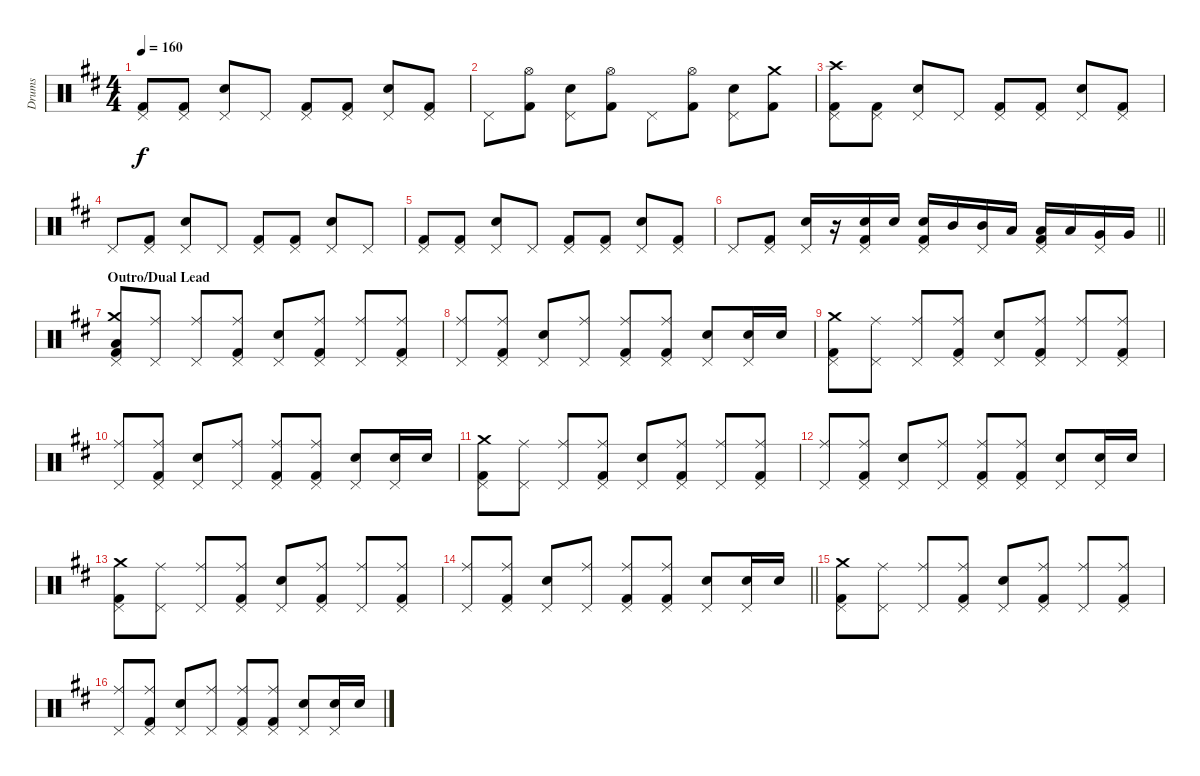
\track ("Drums" "Drums") {instrument percussion}
\staff {score}
\articulation defaults
\ts (4 4)
\tempo 160
\clef neutral
\ks d
("Pedal Hi-Hat (hit)" "Kick (hit) 2").8{dy f} ("Pedal Hi-Hat (hit)" "Kick (hit) 2").8 ("Pedal Hi-Hat (hit)" "Electric Snare (hit)").8 "Pedal Hi-Hat (hit)".8 ("Pedal Hi-Hat (hit)" "Kick (hit) 2").8 ("Pedal Hi-Hat (hit)" "Kick (hit) 2").8 ("Pedal Hi-Hat (hit)" "Electric Snare (hit)").8 ("Pedal Hi-Hat (hit)" "Kick (hit) 2").8 |
"Pedal Hi-Hat (hit)".8 ("Hi-Hat (open)" "Kick (hit) 2").8 ("Pedal Hi-Hat (hit)" "Electric Snare (hit)").8 ("Hi-Hat (open)" "Kick (hit) 2").8 "Pedal Hi-Hat (hit)".8 ("Hi-Hat (open)" "Kick (hit) 2").8 ("Pedal Hi-Hat (hit)" "Electric Snare (hit)").8 ("Crash medium (hit)" "Kick (hit) 2").8 |
("Crash high (hit)" "Pedal Hi-Hat (hit)" "Kick (hit) 2").8 ("Pedal Hi-Hat (hit)" "Kick (hit) 2").8 ("Pedal Hi-Hat (hit)" "Electric Snare (hit)").8 "Pedal Hi-Hat (hit)".8 ("Pedal Hi-Hat (hit)" "Kick (hit) 2").8 ("Pedal Hi-Hat (hit)" "Kick (hit) 2").8 ("Pedal Hi-Hat (hit)" "Electric Snare (hit)").8 ("Pedal Hi-Hat (hit)" "Kick (hit) 2").8 |
"Pedal Hi-Hat (hit)".8 ("Pedal Hi-Hat (hit)" "Kick (hit) 2").8 ("Pedal Hi-Hat (hit)" "Electric Snare (hit)").8 "Pedal Hi-Hat (hit)".8 ("Pedal Hi-Hat (hit)" "Kick (hit) 2").8 ("Pedal Hi-Hat (hit)" "Kick (hit) 2").8 ("Pedal Hi-Hat (hit)" "Electric Snare (hit)").8 "Pedal Hi-Hat (hit)".8 |
("Pedal Hi-Hat (hit)" "Kick (hit) 2").8 ("Pedal Hi-Hat (hit)" "Kick (hit) 2").8 ("Pedal Hi-Hat (hit)" "Electric Snare (hit)").8 "Pedal Hi-Hat (hit)".8 ("Pedal Hi-Hat (hit)" "Kick (hit) 2").8 ("Pedal Hi-Hat (hit)" "Kick (hit) 2").8 ("Pedal Hi-Hat (hit)" "Electric Snare (hit)").8 ("Pedal Hi-Hat (hit)" "Kick (hit) 2").8 |
\barLineRight lightlight "Pedal Hi-Hat (hit)".8
("Pedal Hi-Hat (hit)" "Kick (hit) 2").8 ("Pedal Hi-Hat (hit)" "Electric Snare (hit)").16 r.16 ("Pedal Hi-Hat (hit)" "Electric Snare (hit)" "Kick (hit) 2").16 "Electric Snare (hit)".16 ("Pedal Hi-Hat (hit)" "Electric Snare (hit)" "Kick (hit) 2").16 "Mid Tom (hit)".16 ("Pedal Hi-Hat (hit)" "Mid Tom (hit)").16 "Low Tom (hit)".16 ("Pedal Hi-Hat (hit)" "Low Tom (hit)" "Kick (hit) 2").16 "Low Tom (hit)".16 ("Pedal Hi-Hat (hit)" "Very Low Tom (hit)").16 "Very Low Tom (hit)".16 |
\section ("" "Outro/Dual Lead")
("Crash medium (hit)" "Pedal Hi-Hat (hit)" "Low Floor Tom (hit)" "Kick (hit) 2").8 ("Ride (middle)" "Pedal Hi-Hat (hit)").8 ("Ride (middle)" "Pedal Hi-Hat (hit)").8 ("Ride (middle)" "Pedal Hi-Hat (hit)" "Kick (hit) 2").8 ("Electric Snare (hit)" "Pedal Hi-Hat (hit)").8 ("Ride (middle)" "Pedal Hi-Hat (hit)" "Kick (hit) 2").8 ("Ride (middle)" "Pedal Hi-Hat (hit)").8 ("Ride (middle)" "Pedal Hi-Hat (hit)" "Kick (hit) 2").8 |
("Ride (middle)" "Pedal Hi-Hat (hit)").8 ("Ride (middle)" "Pedal Hi-Hat (hit)" "Kick (hit) 2").8 ("Electric Snare (hit)" "Pedal Hi-Hat (hit)").8 ("Ride (middle)" "Pedal Hi-Hat (hit)").8 ("Ride (middle)" "Pedal Hi-Hat (hit)" "Kick (hit) 2").8 ("Ride (middle)" "Pedal Hi-Hat (hit)" "Kick (hit) 2").8 ("Electric Snare (hit)" "Pedal Hi-Hat (hit)").8 ("Snare (hit) 2" "Pedal Hi-Hat (hit)").16 "Snare (hit) 2".16 |
("Crash medium (hit)" "Pedal Hi-Hat (hit)" "Kick (hit) 2").8 ("Ride (middle)" "Pedal Hi-Hat (hit)").8 ("Ride (middle)" "Pedal Hi-Hat (hit)").8 ("Ride (middle)" "Pedal Hi-Hat (hit)" "Kick (hit) 2").8 ("Electric Snare (hit)" "Pedal Hi-Hat (hit)").8 ("Ride (middle)" "Pedal Hi-Hat (hit)" "Kick (hit) 2").8 ("Ride (middle)" "Pedal Hi-Hat (hit)").8 ("Ride (middle)" "Pedal Hi-Hat (hit)" "Kick (hit) 2").8 |
("Ride (middle)" "Pedal Hi-Hat (hit)").8 ("Ride (middle)" "Pedal Hi-Hat (hit)" "Kick (hit) 2").8 ("Electric Snare (hit)" "Pedal Hi-Hat (hit)").8 ("Ride (middle)" "Pedal Hi-Hat (hit)").8 ("Ride (middle)" "Pedal Hi-Hat (hit)" "Kick (hit) 2").8 ("Ride (middle)" "Pedal Hi-Hat (hit)" "Kick (hit) 2").8 ("Electric Snare (hit)" "Pedal Hi-Hat (hit)").8 ("Snare (hit) 2" "Pedal Hi-Hat (hit)").16 "Snare (hit) 2".16 |
("Crash medium (hit)" "Pedal Hi-Hat (hit)" "Kick (hit) 2").8 ("Ride (middle)" "Pedal Hi-Hat (hit)").8 ("Ride (middle)" "Pedal Hi-Hat (hit)").8 ("Ride (middle)" "Pedal Hi-Hat (hit)" "Kick (hit) 2").8 ("Electric Snare (hit)" "Pedal Hi-Hat (hit)").8 ("Ride (middle)" "Pedal Hi-Hat (hit)" "Kick (hit) 2").8 ("Ride (middle)" "Pedal Hi-Hat (hit)").8 ("Ride (middle)" "Pedal Hi-Hat (hit)" "Kick (hit) 2").8 |
("Ride (middle)" "Pedal Hi-Hat (hit)").8 ("Ride (middle)" "Pedal Hi-Hat (hit)" "Kick (hit) 2").8 ("Electric Snare (hit)" "Pedal Hi-Hat (hit)").8 ("Ride (middle)" "Pedal Hi-Hat (hit)").8 ("Ride (middle)" "Pedal Hi-Hat (hit)" "Kick (hit) 2").8 ("Ride (middle)" "Pedal Hi-Hat (hit)" "Kick (hit) 2").8 ("Electric Snare (hit)" "Pedal Hi-Hat (hit)").8 ("Snare (hit) 2" "Pedal Hi-Hat (hit)").16 "Snare (hit) 2".16 |
("Crash medium (hit)" "Pedal Hi-Hat (hit)" "Kick (hit) 2").8 ("Ride (middle)" "Pedal Hi-Hat (hit)").8 ("Ride (middle)" "Pedal Hi-Hat (hit)").8 ("Ride (middle)" "Pedal Hi-Hat (hit)" "Kick (hit) 2").8 ("Electric Snare (hit)" "Pedal Hi-Hat (hit)").8 ("Ride (middle)" "Pedal Hi-Hat (hit)" "Kick (hit) 2").8 ("Ride (middle)" "Pedal Hi-Hat (hit)").8 ("Ride (middle)" "Pedal Hi-Hat (hit)" "Kick (hit) 2").8 |
\barLineRight lightlight
("Ride (middle)" "Pedal Hi-Hat (hit)").8 ("Ride (middle)" "Pedal Hi-Hat (hit)" "Kick (hit) 2").8 ("Electric Snare (hit)" "Pedal Hi-Hat (hit)").8 ("Ride (middle)" "Pedal Hi-Hat (hit)").8 ("Ride (middle)" "Pedal Hi-Hat (hit)" "Kick (hit) 2").8 ("Ride (middle)" "Pedal Hi-Hat (hit)" "Kick (hit) 2").8 ("Electric Snare (hit)" "Pedal Hi-Hat (hit)").8 ("Snare (hit) 2" "Pedal Hi-Hat (hit)").16 "Snare (hit) 2".16 |
("Crash medium (hit)" "Pedal Hi-Hat (hit)" "Kick (hit) 2").8 ("Ride (middle)" "Pedal Hi-Hat (hit)").8 ("Ride (middle)" "Pedal Hi-Hat (hit)").8 ("Ride (middle)" "Pedal Hi-Hat (hit)" "Kick (hit) 2").8 ("Electric Snare (hit)" "Pedal Hi-Hat (hit)").8 ("Ride (middle)" "Pedal Hi-Hat (hit)" "Kick (hit) 2").8 ("Ride (middle)" "Pedal Hi-Hat (hit)").8 ("Ride (middle)" "Pedal Hi-Hat (hit)" "Kick (hit) 2").8 |
("Ride (middle)" "Pedal Hi-Hat (hit)").8 ("Ride (middle)" "Pedal Hi-Hat (hit)" "Kick (hit) 2").8 ("Electric Snare (hit)" "Pedal Hi-Hat (hit)").8 ("Ride (middle)" "Pedal Hi-Hat (hit)").8 ("Ride (middle)" "Pedal Hi-Hat (hit)" "Kick (hit) 2").8 ("Ride (middle)" "Pedal Hi-Hat (hit)" "Kick (hit) 2").8 ("Electric Snare (hit)" "Pedal Hi-Hat (hit)").8 ("Snare (hit) 2" "Pedal Hi-Hat (hit)").16 "Snare (hit) 2".16
